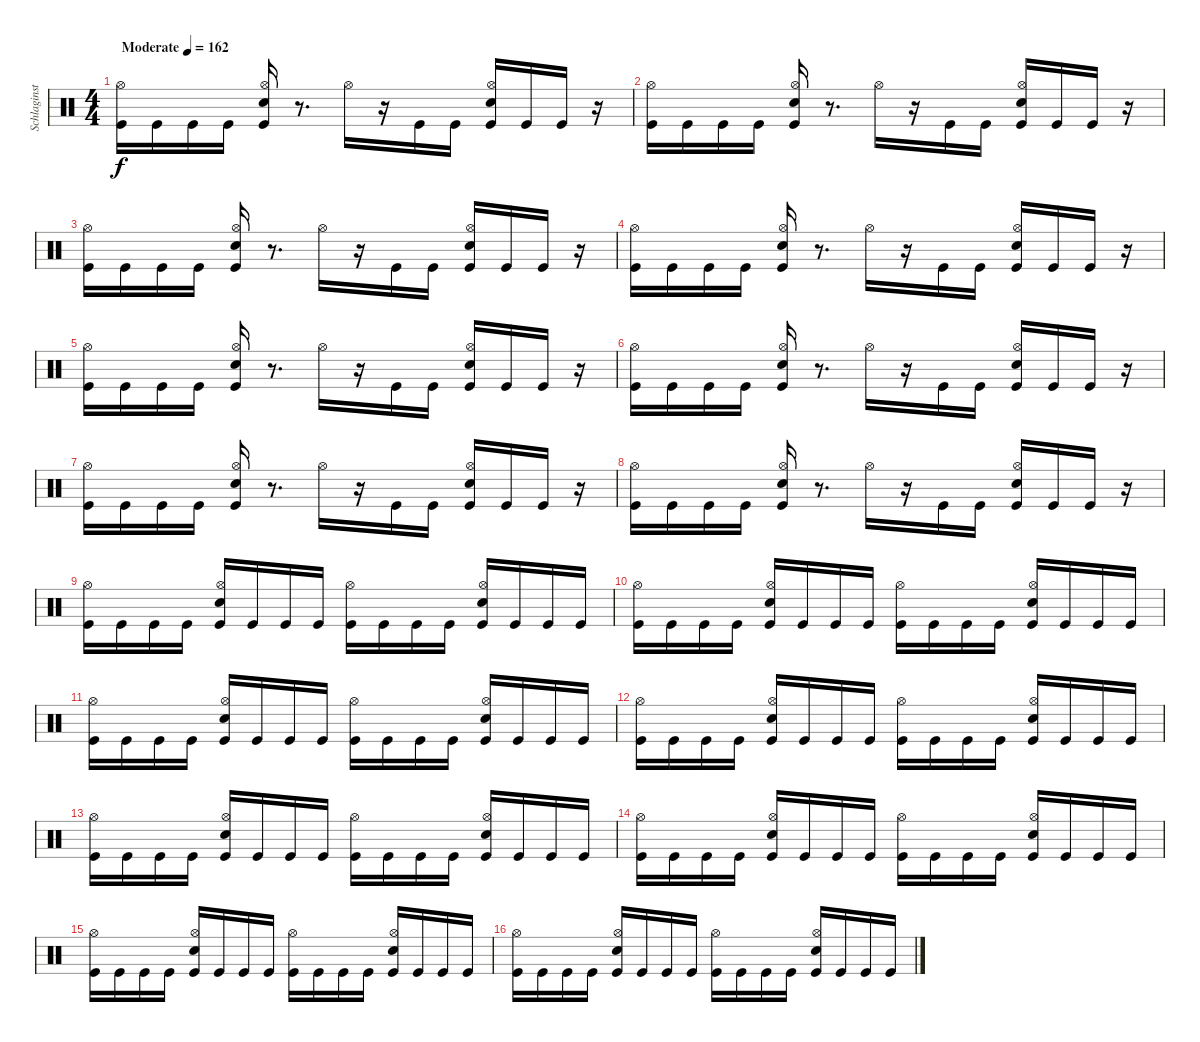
\track ("Schlaginstrumente - Auswahl" "Schlaginst") {instrument percussion}
\staff {score}
\articulation defaults
\ts (4 4)
\tempo (162 "Moderate")
\clef neutral
\ks c
("Kick (hit)" "Hi-Hat (open)").16{dy f} "Kick (hit)".16 "Kick (hit)".16 "Kick (hit)".16 ("Kick (hit)" "Electric Snare (hit)" "Hi-Hat (open)").16 r.8{d} "Hi-Hat (open)".16 r.16 "Kick (hit)".16 "Kick (hit)".16 ("Kick (hit)" "Electric Snare (hit)" "Hi-Hat (open)").16 "Kick (hit)".16 "Kick (hit)".16 r.16 |
("Kick (hit)" "Hi-Hat (open)").16 "Kick (hit)".16 "Kick (hit)".16 "Kick (hit)".16 ("Kick (hit)" "Electric Snare (hit)" "Hi-Hat (open)").16 r.8{d} "Hi-Hat (open)".16 r.16 "Kick (hit)".16 "Kick (hit)".16 ("Kick (hit)" "Electric Snare (hit)" "Hi-Hat (open)").16 "Kick (hit)".16 "Kick (hit)".16 r.16 |
("Kick (hit)" "Hi-Hat (open)").16 "Kick (hit)".16 "Kick (hit)".16 "Kick (hit)".16 ("Kick (hit)" "Electric Snare (hit)" "Hi-Hat (open)").16 r.8{d} "Hi-Hat (open)".16 r.16 "Kick (hit)".16 "Kick (hit)".16 ("Kick (hit)" "Electric Snare (hit)" "Hi-Hat (open)").16 "Kick (hit)".16 "Kick (hit)".16 r.16 |
("Kick (hit)" "Hi-Hat (open)").16 "Kick (hit)".16 "Kick (hit)".16 "Kick (hit)".16 ("Kick (hit)" "Electric Snare (hit)" "Hi-Hat (open)").16 r.8{d} "Hi-Hat (open)".16 r.16 "Kick (hit)".16 "Kick (hit)".16 ("Kick (hit)" "Electric Snare (hit)" "Hi-Hat (open)").16 "Kick (hit)".16 "Kick (hit)".16 r.16 |
("Kick (hit)" "Hi-Hat (open)").16 "Kick (hit)".16 "Kick (hit)".16 "Kick (hit)".16 ("Kick (hit)" "Electric Snare (hit)" "Hi-Hat (open)").16 r.8{d} "Hi-Hat (open)".16 r.16 "Kick (hit)".16 "Kick (hit)".16 ("Kick (hit)" "Electric Snare (hit)" "Hi-Hat (open)").16 "Kick (hit)".16 "Kick (hit)".16 r.16 |
("Kick (hit)" "Hi-Hat (open)").16 "Kick (hit)".16 "Kick (hit)".16 "Kick (hit)".16 ("Kick (hit)" "Electric Snare (hit)" "Hi-Hat (open)").16 r.8{d} "Hi-Hat (open)".16 r.16 "Kick (hit)".16 "Kick (hit)".16 ("Kick (hit)" "Electric Snare (hit)" "Hi-Hat (open)").16 "Kick (hit)".16 "Kick (hit)".16 r.16 |
("Kick (hit)" "Hi-Hat (open)").16 "Kick (hit)".16 "Kick (hit)".16 "Kick (hit)".16 ("Kick (hit)" "Electric Snare (hit)" "Hi-Hat (open)").16 r.8{d} "Hi-Hat (open)".16 r.16 "Kick (hit)".16 "Kick (hit)".16 ("Kick (hit)" "Electric Snare (hit)" "Hi-Hat (open)").16 "Kick (hit)".16 "Kick (hit)".16 r.16 |
("Kick (hit)" "Hi-Hat (open)").16 "Kick (hit)".16 "Kick (hit)".16 "Kick (hit)".16 ("Kick (hit)" "Electric Snare (hit)" "Hi-Hat (open)").16 r.8{d} "Hi-Hat (open)".16 r.16 "Kick (hit)".16 "Kick (hit)".16 ("Kick (hit)" "Electric Snare (hit)" "Hi-Hat (open)").16 "Kick (hit)".16 "Kick (hit)".16 r.16 |
("Kick (hit)" "Hi-Hat (open)").16 "Kick (hit)".16 "Kick (hit)".16 "Kick (hit)".16 ("Kick (hit)" "Electric Snare (hit)" "Hi-Hat (open)").16 "Kick (hit)".16 "Kick (hit)".16 "Kick (hit)".16 ("Kick (hit)" "Hi-Hat (open)").16 "Kick (hit)".16 "Kick (hit)".16 "Kick (hit)".16 ("Kick (hit)" "Electric Snare (hit)" "Hi-Hat (open)").16 "Kick (hit)".16 "Kick (hit)".16 "Kick (hit)".16 |
("Kick (hit)" "Hi-Hat (open)").16 "Kick (hit)".16 "Kick (hit)".16 "Kick (hit)".16 ("Kick (hit)" "Electric Snare (hit)" "Hi-Hat (open)").16 "Kick (hit)".16 "Kick (hit)".16 "Kick (hit)".16 ("Kick (hit)" "Hi-Hat (open)").16 "Kick (hit)".16 "Kick (hit)".16 "Kick (hit)".16 ("Kick (hit)" "Electric Snare (hit)" "Hi-Hat (open)").16 "Kick (hit)".16 "Kick (hit)".16 "Kick (hit)".16 |
("Kick (hit)" "Hi-Hat (open)").16 "Kick (hit)".16 "Kick (hit)".16 "Kick (hit)".16 ("Kick (hit)" "Electric Snare (hit)" "Hi-Hat (open)").16 "Kick (hit)".16 "Kick (hit)".16 "Kick (hit)".16 ("Kick (hit)" "Hi-Hat (open)").16 "Kick (hit)".16 "Kick (hit)".16 "Kick (hit)".16 ("Kick (hit)" "Electric Snare (hit)" "Hi-Hat (open)").16 "Kick (hit)".16 "Kick (hit)".16 "Kick (hit)".16 |
("Kick (hit)" "Hi-Hat (open)").16 "Kick (hit)".16 "Kick (hit)".16 "Kick (hit)".16 ("Kick (hit)" "Electric Snare (hit)" "Hi-Hat (open)").16 "Kick (hit)".16 "Kick (hit)".16 "Kick (hit)".16 ("Kick (hit)" "Hi-Hat (open)").16 "Kick (hit)".16 "Kick (hit)".16 "Kick (hit)".16 ("Kick (hit)" "Electric Snare (hit)" "Hi-Hat (open)").16 "Kick (hit)".16 "Kick (hit)".16 "Kick (hit)".16 |
("Kick (hit)" "Hi-Hat (open)").16 "Kick (hit)".16 "Kick (hit)".16 "Kick (hit)".16 ("Kick (hit)" "Electric Snare (hit)" "Hi-Hat (open)").16 "Kick (hit)".16 "Kick (hit)".16 "Kick (hit)".16 ("Kick (hit)" "Hi-Hat (open)").16 "Kick (hit)".16 "Kick (hit)".16 "Kick (hit)".16 ("Kick (hit)" "Electric Snare (hit)" "Hi-Hat (open)").16 "Kick (hit)".16 "Kick (hit)".16 "Kick (hit)".16 |
("Kick (hit)" "Hi-Hat (open)").16 "Kick (hit)".16 "Kick (hit)".16 "Kick (hit)".16 ("Kick (hit)" "Electric Snare (hit)" "Hi-Hat (open)").16 "Kick (hit)".16 "Kick (hit)".16 "Kick (hit)".16 ("Kick (hit)" "Hi-Hat (open)").16 "Kick (hit)".16 "Kick (hit)".16 "Kick (hit)".16 ("Kick (hit)" "Electric Snare (hit)" "Hi-Hat (open)").16 "Kick (hit)".16 "Kick (hit)".16 "Kick (hit)".16 |
("Kick (hit)" "Hi-Hat (open)").16 "Kick (hit)".16 "Kick (hit)".16 "Kick (hit)".16 ("Kick (hit)" "Electric Snare (hit)" "Hi-Hat (open)").16 "Kick (hit)".16 "Kick (hit)".16 "Kick (hit)".16 ("Kick (hit)" "Hi-Hat (open)").16 "Kick (hit)".16 "Kick (hit)".16 "Kick (hit)".16 ("Kick (hit)" "Electric Snare (hit)" "Hi-Hat (open)").16 "Kick (hit)".16 "Kick (hit)".16 "Kick (hit)".16 |
("Kick (hit)" "Hi-Hat (open)").16 "Kick (hit)".16 "Kick (hit)".16 "Kick (hit)".16 ("Kick (hit)" "Electric Snare (hit)" "Hi-Hat (open)").16 "Kick (hit)".16 "Kick (hit)".16 "Kick (hit)".16 ("Kick (hit)" "Hi-Hat (open)").16 "Kick (hit)".16 "Kick (hit)".16 "Kick (hit)".16 ("Kick (hit)" "Electric Snare (hit)" "Hi-Hat (open)").16 "Kick (hit)".16 "Kick (hit)".16 "Kick (hit)".16
